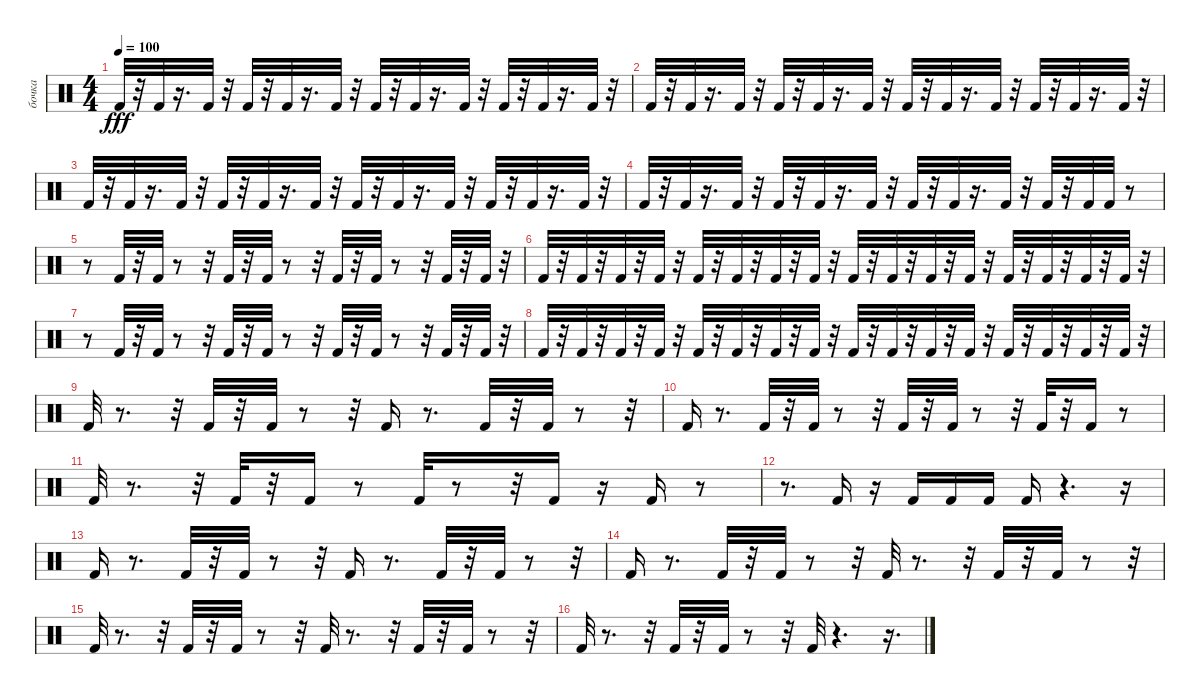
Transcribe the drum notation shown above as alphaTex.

\track ("бочка" "бочка") {instrument percussion}
\staff {score}
\articulation defaults
\ts (4 4)
\tempo 100
\clef neutral
\ks c "Kick (hit) 2".32{dy fff}
r.32 "Kick (hit) 2".32 r.16{d} "Kick (hit) 2".32 r.32 "Kick (hit) 2".32 r.32 "Kick (hit) 2".32 r.16{d} "Kick (hit) 2".32 r.32 "Kick (hit) 2".32 r.32 "Kick (hit) 2".32 r.16{d} "Kick (hit) 2".32 r.32 "Kick (hit) 2".32 r.32 "Kick (hit) 2".32 r.16{d} "Kick (hit) 2".32 r.32 |
"Kick (hit) 2".32 r.32 "Kick (hit) 2".32 r.16{d} "Kick (hit) 2".32 r.32 "Kick (hit) 2".32 r.32 "Kick (hit) 2".32 r.16{d} "Kick (hit) 2".32 r.32 "Kick (hit) 2".32 r.32 "Kick (hit) 2".32 r.16{d} "Kick (hit) 2".32 r.32 "Kick (hit) 2".32 r.32 "Kick (hit) 2".32 r.16{d} "Kick (hit) 2".32 r.32 |
"Kick (hit) 2".32 r.32 "Kick (hit) 2".32 r.16{d} "Kick (hit) 2".32 r.32 "Kick (hit) 2".32 r.32 "Kick (hit) 2".32 r.16{d} "Kick (hit) 2".32 r.32 "Kick (hit) 2".32 r.32 "Kick (hit) 2".32 r.16{d} "Kick (hit) 2".32 r.32 "Kick (hit) 2".32 r.32 "Kick (hit) 2".32 r.16{d} "Kick (hit) 2".32 r.32 |
"Kick (hit) 2".32 r.32 "Kick (hit) 2".32 r.16{d} "Kick (hit) 2".32 r.32 "Kick (hit) 2".32 r.32 "Kick (hit) 2".32 r.16{d} "Kick (hit) 2".32 r.32 "Kick (hit) 2".32 r.32 "Kick (hit) 2".32 r.16{d} "Kick (hit) 2".32 r.32 "Kick (hit) 2".32 r.32 "Kick (hit) 2".32 "Kick (hit) 2".32 r.8 |
r.8 "Kick (hit) 2".32 r.32 "Kick (hit) 2".32 r.8 r.32 "Kick (hit) 2".32 r.32 "Kick (hit) 2".32 r.8 r.32 "Kick (hit) 2".32 r.32 "Kick (hit) 2".32 r.8 r.32 "Kick (hit) 2".32 r.32 "Kick (hit) 2".32 r.32 |
"Kick (hit) 2".32 r.32 "Kick (hit) 2".32 r.32 "Kick (hit) 2".32 r.32 "Kick (hit) 2".32 r.32 "Kick (hit) 2".32 r.32 "Kick (hit) 2".32 r.32 "Kick (hit) 2".32 r.32 "Kick (hit) 2".32 r.32 "Kick (hit) 2".32 r.32 "Kick (hit) 2".32 r.32 "Kick (hit) 2".32 r.32 "Kick (hit) 2".32 r.32 "Kick (hit) 2".32 r.32 "Kick (hit) 2".32 r.32 "Kick (hit) 2".32 r.32 "Kick (hit) 2".32 r.32 |
r.8 "Kick (hit) 2".32 r.32 "Kick (hit) 2".32 r.8 r.32 "Kick (hit) 2".32 r.32 "Kick (hit) 2".32 r.8 r.32 "Kick (hit) 2".32 r.32 "Kick (hit) 2".32 r.8 r.32 "Kick (hit) 2".32 r.32 "Kick (hit) 2".32 r.32 |
"Kick (hit) 2".32 r.32 "Kick (hit) 2".32 r.32 "Kick (hit) 2".32 r.32 "Kick (hit) 2".32 r.32 "Kick (hit) 2".32 r.32 "Kick (hit) 2".32 r.32 "Kick (hit) 2".32 r.32 "Kick (hit) 2".32 r.32 "Kick (hit) 2".32 r.32 "Kick (hit) 2".32 r.32 "Kick (hit) 2".32 r.32 "Kick (hit) 2".32 r.32 "Kick (hit) 2".32 r.32 "Kick (hit) 2".32 r.32 "Kick (hit) 2".32 r.32 "Kick (hit) 2".32 r.32 |
"Kick (hit) 2".32 r.8{d} r.32 "Kick (hit) 2".32 r.32 "Kick (hit) 2".32 r.8 r.32 "Kick (hit) 2".16 r.8{d} "Kick (hit) 2".32 r.32 "Kick (hit) 2".32 r.8 r.32 |
"Kick (hit) 2".16 r.8{d} "Kick (hit) 2".32 r.32 "Kick (hit) 2".32 r.8 r.32 "Kick (hit) 2".32 r.32 "Kick (hit) 2".32 r.8 r.32 "Kick (hit) 2".32 r.32 "Kick (hit) 2".16 r.8 |
"Kick (hit) 2".32 r.8{d} r.32 "Kick (hit) 2".32 r.32 "Kick (hit) 2".16 r.8 "Kick (hit) 2".32 r.8 r.32 "Kick (hit) 2".16 r.16 "Kick (hit) 2".16 r.8 |
r.8{d} "Kick (hit) 2".16 r.16 "Kick (hit) 2".16 "Kick (hit) 2".16 "Kick (hit) 2".16 "Kick (hit) 2".16 r.4{d} r.16 |
"Kick (hit) 2".16 r.8{d} "Kick (hit) 2".32 r.32 "Kick (hit) 2".32 r.8 r.32 "Kick (hit) 2".16 r.8{d} "Kick (hit) 2".32 r.32 "Kick (hit) 2".32 r.8 r.32 |
"Kick (hit) 2".16 r.8{d} "Kick (hit) 2".32 r.32 "Kick (hit) 2".32 r.8 r.32 "Kick (hit) 2".32 r.8{d} r.32 "Kick (hit) 2".32 r.32 "Kick (hit) 2".32 r.8 r.32 |
"Kick (hit) 2".32 r.8{d} r.32 "Kick (hit) 2".32 r.32 "Kick (hit) 2".32 r.8 r.32 "Kick (hit) 2".32 r.8{d} r.32 "Kick (hit) 2".32 r.32 "Kick (hit) 2".32 r.8 r.32 |
"Kick (hit) 2".32 r.8{d} r.32 "Kick (hit) 2".32 r.32 "Kick (hit) 2".32 r.8 r.32 "Kick (hit) 2".32 r.4{d} r.16{d}
